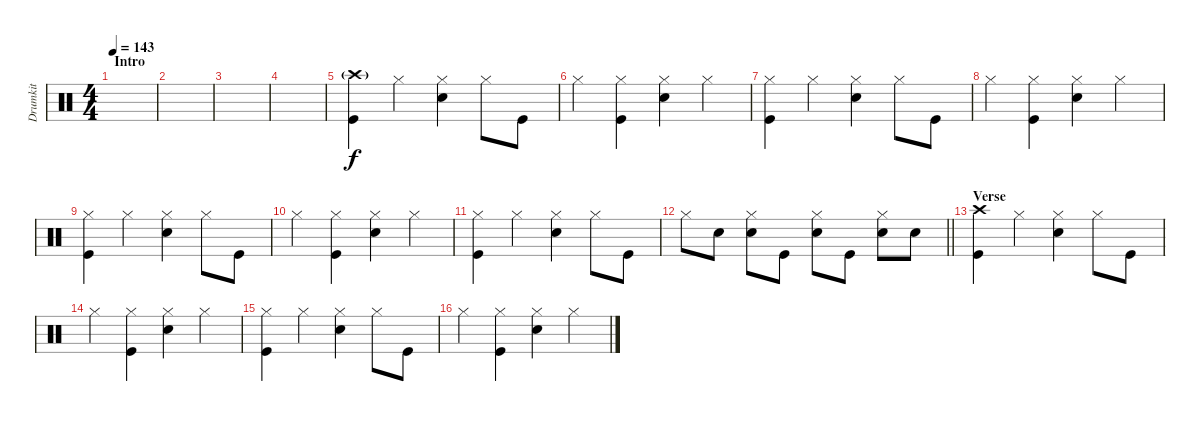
\track ("Drumkit" "Drumkit") {instrument percussion}
\staff {score}
\articulation defaults
\ts (4 4)
\section ("" "Intro")
\tempo 143
\clef neutral
\ks c
|
|
|
|
("Crash high (hit)"{g} "Kick (hit)").4 "Hi-Hat (closed)".4 ("Hi-Hat (closed)" "Snare (hit) 2").4 "Hi-Hat (closed)".8 "Kick (hit)".8 |
"Hi-Hat (closed)".4 ("Hi-Hat (closed)" "Kick (hit)").4 ("Hi-Hat (closed)" "Snare (hit) 2").4 "Hi-Hat (closed)".4 |
("Kick (hit)" "Hi-Hat (closed)").4 "Hi-Hat (closed)".4 ("Hi-Hat (closed)" "Snare (hit) 2").4 "Hi-Hat (closed)".8 "Kick (hit)".8 |
"Hi-Hat (closed)".4 ("Hi-Hat (closed)" "Kick (hit)").4 ("Hi-Hat (closed)" "Snare (hit) 2").4 "Hi-Hat (closed)".4 |
("Kick (hit)" "Hi-Hat (closed)").4 "Hi-Hat (closed)".4 ("Hi-Hat (closed)" "Snare (hit) 2").4 "Hi-Hat (closed)".8 "Kick (hit)".8 |
"Hi-Hat (closed)".4 ("Hi-Hat (closed)" "Kick (hit)").4 ("Hi-Hat (closed)" "Snare (hit) 2").4 "Hi-Hat (closed)".4 |
("Kick (hit)" "Hi-Hat (closed)").4 "Hi-Hat (closed)".4 ("Hi-Hat (closed)" "Snare (hit) 2").4 "Hi-Hat (closed)".8 "Kick (hit)".8 |
\barLineRight lightlight "Hi-Hat (closed)".8 "Snare (hit) 2".8
("Hi-Hat (closed)" "Snare (hit) 2").8 "Kick (hit)".8 ("Hi-Hat (closed)" "Snare (hit) 2").8 "Kick (hit)".8 ("Hi-Hat (closed)" "Snare (hit) 2").8 "Snare (hit) 2".8 |
\section ("" "Verse")
("Crash high (hit)" "Kick (hit)").4 "Hi-Hat (closed)".4 ("Hi-Hat (closed)" "Snare (hit) 2").4 "Hi-Hat (closed)".8 "Kick (hit)".8 |
"Hi-Hat (closed)".4 ("Hi-Hat (closed)" "Kick (hit)").4 ("Hi-Hat (closed)" "Snare (hit) 2").4 "Hi-Hat (closed)".4 |
("Kick (hit)" "Hi-Hat (closed)").4 "Hi-Hat (closed)".4 ("Hi-Hat (closed)" "Snare (hit) 2").4 "Hi-Hat (closed)".8 "Kick (hit)".8 |
"Hi-Hat (closed)".4 ("Hi-Hat (closed)" "Kick (hit)").4 ("Hi-Hat (closed)" "Snare (hit) 2").4 "Hi-Hat (closed)".4
